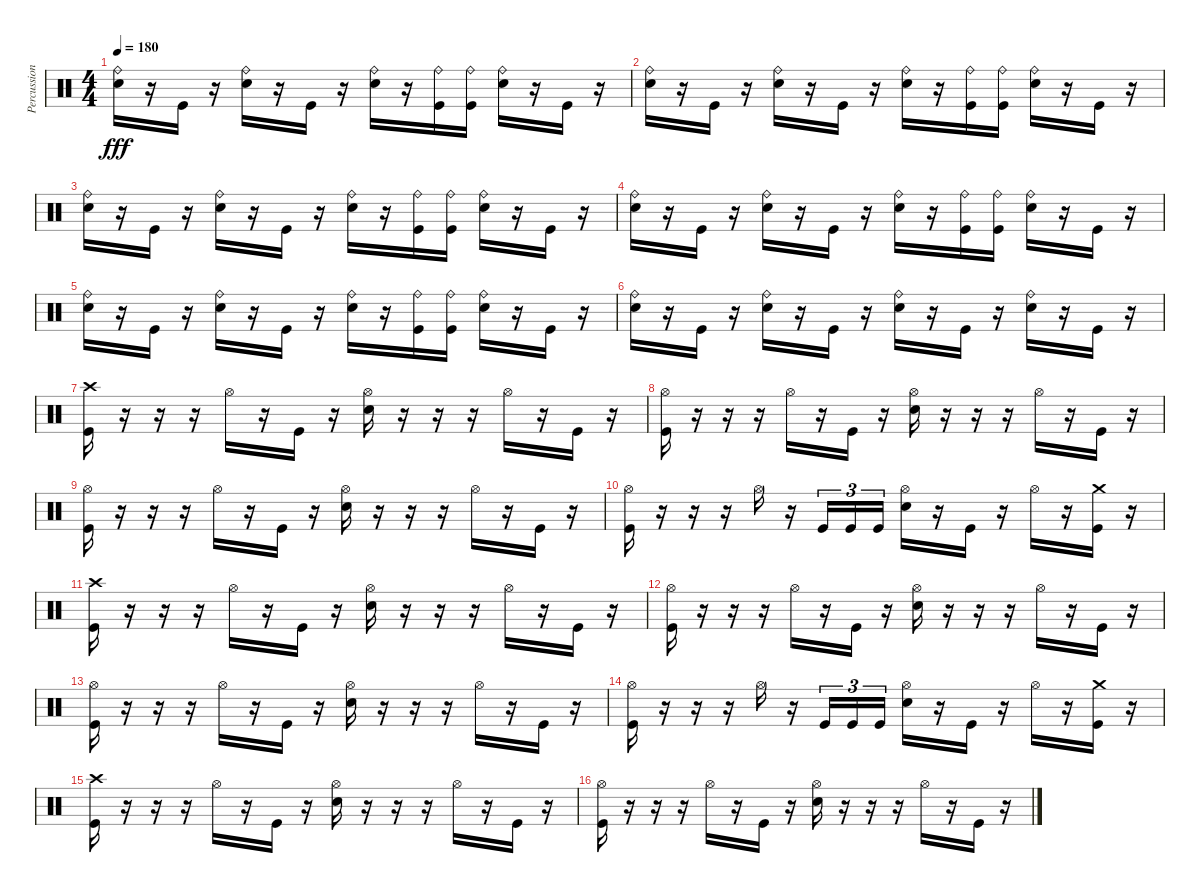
\track ("Percussion" "Percussion") {instrument percussion}
\staff {score}
\articulation defaults
\ts (4 4)
\tempo 180
\clef neutral
\ks c
("Ride (bell)" "Electric Snare (hit)").16{dy fff} r.16 "Kick (hit)".16 r.16 ("Ride (bell)" "Electric Snare (hit)").16 r.16 "Kick (hit)".16 r.16 ("Ride (bell)" "Electric Snare (hit)").16 r.16 ("Ride (bell)" "Kick (hit)").16 ("Ride (bell)" "Kick (hit)").16 ("Ride (bell)" "Electric Snare (hit)").16 r.16 "Kick (hit)".16 r.16 |
("Ride (bell)" "Electric Snare (hit)").16 r.16 "Kick (hit)".16 r.16 ("Ride (bell)" "Electric Snare (hit)").16 r.16 "Kick (hit)".16 r.16 ("Ride (bell)" "Electric Snare (hit)").16 r.16 ("Ride (bell)" "Kick (hit)").16 ("Ride (bell)" "Kick (hit)").16 ("Ride (bell)" "Electric Snare (hit)").16 r.16 "Kick (hit)".16 r.16 |
("Ride (bell)" "Electric Snare (hit)").16 r.16 "Kick (hit)".16 r.16 ("Ride (bell)" "Electric Snare (hit)").16 r.16 "Kick (hit)".16 r.16 ("Ride (bell)" "Electric Snare (hit)").16 r.16 ("Ride (bell)" "Kick (hit)").16 ("Ride (bell)" "Kick (hit)").16 ("Ride (bell)" "Electric Snare (hit)").16 r.16 "Kick (hit)".16 r.16 |
("Ride (bell)" "Electric Snare (hit)").16 r.16 "Kick (hit)".16 r.16 ("Ride (bell)" "Electric Snare (hit)").16 r.16 "Kick (hit)".16 r.16 ("Ride (bell)" "Electric Snare (hit)").16 r.16 ("Ride (bell)" "Kick (hit)").16 ("Ride (bell)" "Kick (hit)").16 ("Ride (bell)" "Electric Snare (hit)").16 r.16 "Kick (hit)".16 r.16 |
("Ride (bell)" "Electric Snare (hit)").16 r.16 "Kick (hit)".16 r.16 ("Ride (bell)" "Electric Snare (hit)").16 r.16 "Kick (hit)".16 r.16 ("Ride (bell)" "Electric Snare (hit)").16 r.16 ("Ride (bell)" "Kick (hit)").16 ("Ride (bell)" "Kick (hit)").16 ("Ride (bell)" "Electric Snare (hit)").16 r.16 "Kick (hit)".16 r.16 |
("Ride (bell)" "Electric Snare (hit)").16 r.16 "Kick (hit)".16 r.16 ("Ride (bell)" "Electric Snare (hit)").16 r.16 "Kick (hit)".16 r.16 ("Ride (bell)" "Electric Snare (hit)").16 r.16 "Kick (hit)".16 r.16 ("Ride (bell)" "Electric Snare (hit)").16 r.16 "Kick (hit)".16 r.16 |
("Crash high (hit)" "Kick (hit)").16 r.16 r.16 r.16 "Hi-Hat (open)".16 r.16 "Kick (hit)".16 r.16 ("Hi-Hat (open)" "Electric Snare (hit)").16 r.16 r.16 r.16 "Hi-Hat (open)".16 r.16 "Kick (hit)".16 r.16 |
("Hi-Hat (open)" "Kick (hit)").16 r.16 r.16 r.16 "Hi-Hat (open)".16 r.16 "Kick (hit)".16 r.16 ("Hi-Hat (open)" "Electric Snare (hit)").16 r.16 r.16 r.16 "Hi-Hat (open)".16 r.16 "Kick (hit)".16 r.16 |
("Hi-Hat (open)" "Kick (hit)").16 r.16 r.16 r.16 "Hi-Hat (open)".16 r.16 "Kick (hit)".16 r.16 ("Hi-Hat (open)" "Electric Snare (hit)").16 r.16 r.16 r.16 "Hi-Hat (open)".16 r.16 "Kick (hit)".16 r.16 |
("Hi-Hat (open)" "Kick (hit)").16 r.16 r.16 r.16 "Hi-Hat (open)".16 r.16 "Kick (hit)".16{tu (3 2)} "Kick (hit)".16{tu (3 2)} "Kick (hit)".16{tu (3 2)} ("Hi-Hat (open)" "Electric Snare (hit)").16 r.16 "Kick (hit)".16 r.16 "Hi-Hat (open)".16 r.16 ("Crash medium (hit)" "Kick (hit)").16 r.16 |
("Crash high (hit)" "Kick (hit)").16 r.16 r.16 r.16 "Hi-Hat (open)".16 r.16 "Kick (hit)".16 r.16 ("Hi-Hat (open)" "Electric Snare (hit)").16 r.16 r.16 r.16 "Hi-Hat (open)".16 r.16 "Kick (hit)".16 r.16 |
("Hi-Hat (open)" "Kick (hit)").16 r.16 r.16 r.16 "Hi-Hat (open)".16 r.16 "Kick (hit)".16 r.16 ("Hi-Hat (open)" "Electric Snare (hit)").16 r.16 r.16 r.16 "Hi-Hat (open)".16 r.16 "Kick (hit)".16 r.16 |
("Hi-Hat (open)" "Kick (hit)").16 r.16 r.16 r.16 "Hi-Hat (open)".16 r.16 "Kick (hit)".16 r.16 ("Hi-Hat (open)" "Electric Snare (hit)").16 r.16 r.16 r.16 "Hi-Hat (open)".16 r.16 "Kick (hit)".16 r.16 |
("Hi-Hat (open)" "Kick (hit)").16 r.16 r.16 r.16 "Hi-Hat (open)".16 r.16 "Kick (hit)".16{tu (3 2)} "Kick (hit)".16{tu (3 2)} "Kick (hit)".16{tu (3 2)} ("Hi-Hat (open)" "Electric Snare (hit)").16 r.16 "Kick (hit)".16 r.16 "Hi-Hat (open)".16 r.16 ("Crash medium (hit)" "Kick (hit)").16 r.16 |
("Crash high (hit)" "Kick (hit)").16 r.16 r.16 r.16 "Hi-Hat (open)".16 r.16 "Kick (hit)".16 r.16 ("Hi-Hat (open)" "Electric Snare (hit)").16 r.16 r.16 r.16 "Hi-Hat (open)".16 r.16 "Kick (hit)".16 r.16 |
("Hi-Hat (open)" "Kick (hit)").16 r.16 r.16 r.16 "Hi-Hat (open)".16 r.16 "Kick (hit)".16 r.16 ("Hi-Hat (open)" "Electric Snare (hit)").16 r.16 r.16 r.16 "Hi-Hat (open)".16 r.16 "Kick (hit)".16 r.16
